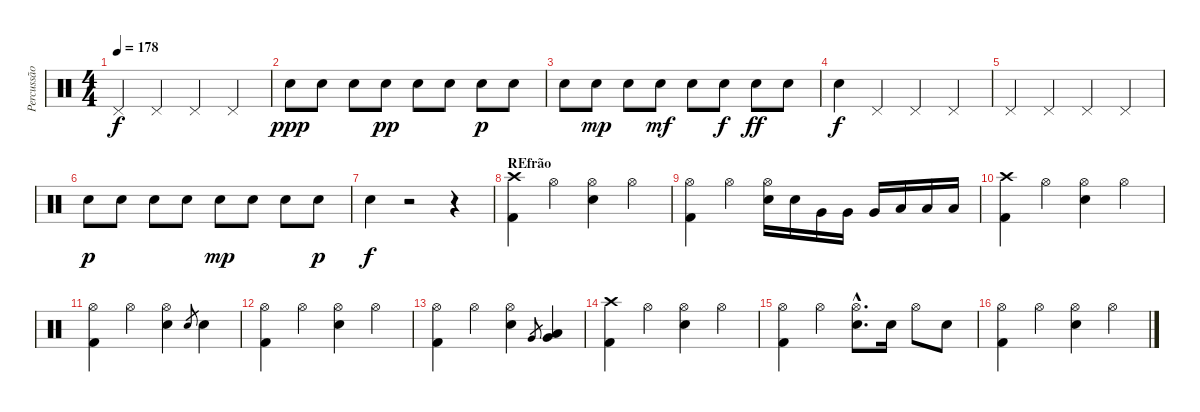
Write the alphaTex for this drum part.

\track ("Percussão" "Percussão") {instrument percussion}
\staff {score}
\articulation defaults
\ts (4 4)
\tempo 178
\clef neutral
\ks c "Pedal Hi-Hat (hit)".4{dy f} "Pedal Hi-Hat (hit)".4 "Pedal Hi-Hat (hit)".4 "Pedal Hi-Hat (hit)".4
|
"Snare (hit) 2".8{dy ppp} "Snare (hit) 2".8 "Snare (hit) 2".8 "Snare (hit) 2".8{dy pp} "Snare (hit) 2".8 "Snare (hit) 2".8 "Snare (hit) 2".8{dy p} "Snare (hit) 2".8 |
"Snare (hit) 2".8 "Snare (hit) 2".8{dy mp} "Snare (hit) 2".8 "Snare (hit) 2".8{dy mf} "Snare (hit) 2".8 "Snare (hit) 2".8{dy f} "Snare (hit) 2".8{dy ff} "Snare (hit) 2".8 |
"Snare (hit) 2".4{dy f} "Pedal Hi-Hat (hit)".4 "Pedal Hi-Hat (hit)".4 "Pedal Hi-Hat (hit)".4 |
"Pedal Hi-Hat (hit)".4 "Pedal Hi-Hat (hit)".4 "Pedal Hi-Hat (hit)".4 "Pedal Hi-Hat (hit)".4 |
"Snare (hit) 2".8{dy p} "Snare (hit) 2".8 "Snare (hit) 2".8 "Snare (hit) 2".8 "Snare (hit) 2".8{dy mp} "Snare (hit) 2".8 "Snare (hit) 2".8 "Snare (hit) 2".8{dy p} |
"Snare (hit) 2".4{dy f} r.2 r.4 |
\section ("" "REfrão")
("Crash high (hit)" "Kick (hit) 2").4 "Hi-Hat (open)".4 ("Hi-Hat (open)" "Snare (hit) 2").4 "Hi-Hat (open)".4 |
("Hi-Hat (open)" "Kick (hit) 2").4 "Hi-Hat (open)".4 ("Hi-Hat (open)" "Snare (hit) 2").16 "Snare (hit) 2".16 "Very Low Tom (hit)".16 "Very Low Tom (hit)".16 "Very Low Tom (hit)".16 "Low Tom (hit)".16 "Low Tom (hit)".16 "Low Tom (hit)".16 |
("Crash high (hit)" "Kick (hit) 2").4 "Hi-Hat (open)".4 ("Hi-Hat (open)" "Snare (hit) 2").4 "Hi-Hat (open)".4 |
("Hi-Hat (open)" "Kick (hit) 2").4 "Hi-Hat (open)".4 ("Hi-Hat (open)" "Snare (hit) 2").4 "Snare (hit) 2".8{gr} "Snare (hit) 2".4 |
("Hi-Hat (open)" "Kick (hit) 2").4 "Hi-Hat (open)".4 ("Hi-Hat (open)" "Snare (hit) 2").4 "Hi-Hat (open)".4 |
("Hi-Hat (open)" "Kick (hit) 2").4 "Hi-Hat (open)".4 ("Hi-Hat (open)" "Snare (hit) 2").4 "Very Low Tom (hit)".8{gr} ("Very Low Tom (hit)" "Low Tom (hit)").4 |
("Crash high (hit)" "Kick (hit) 2").4 "Hi-Hat (open)".4 ("Hi-Hat (open)" "Snare (hit) 2").4 "Hi-Hat (open)".4 |
("Hi-Hat (open)" "Kick (hit) 2").4 "Hi-Hat (open)".4 ("Hi-Hat (open)"{hac} "Snare (hit) 2"{hac}).8{d} "Snare (hit) 2".16 "Hi-Hat (open)".8 "Snare (hit) 2".8 |
("Hi-Hat (open)" "Kick (hit) 2").4 "Hi-Hat (open)".4 ("Hi-Hat (open)" "Snare (hit) 2").4 "Hi-Hat (open)".4
